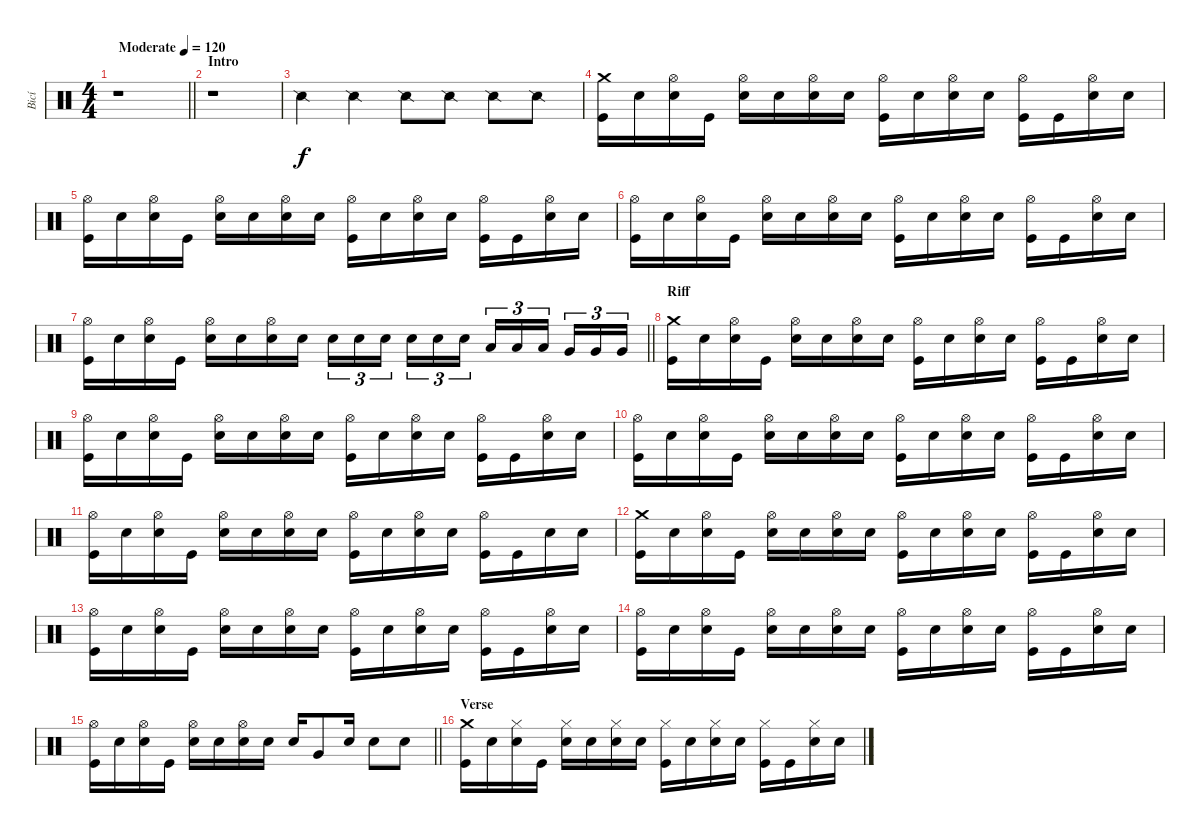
\track ("Bicí" "Bicí") {instrument percussion}
\staff {score}
\articulation defaults
\ts (4 4)
\tempo (120 "Moderate")
\clef neutral
\barLineRight lightlight
\ks c
r.1{dy f} |
\section ("" "Intro")
r.1 |
"Snare (side stick) 2".4 "Snare (side stick) 2".4 "Snare (side stick) 2".8 "Snare (side stick) 2".8 "Snare (side stick) 2".8 "Snare (side stick) 2".8 |
("Crash medium (hit)" "Kick (hit)").16 "Snare (hit)".16 ("Hi-Hat (open)" "Electric Snare (hit)").16 "Kick (hit)".16 ("Hi-Hat (open)" "Snare (hit)").16 "Snare (hit)".16 ("Hi-Hat (open)" "Electric Snare (hit)").16 "Snare (hit)".16 ("Hi-Hat (open)" "Kick (hit)").16 "Snare (hit)".16 ("Hi-Hat (open)" "Electric Snare (hit)").16 "Snare (hit)".16 ("Hi-Hat (open)" "Kick (hit)").16 "Kick (hit)".16 ("Hi-Hat (open)" "Electric Snare (hit)").16 "Snare (hit)".16 |
("Hi-Hat (open)" "Kick (hit)").16 "Snare (hit)".16 ("Hi-Hat (open)" "Electric Snare (hit)").16 "Kick (hit)".16 ("Hi-Hat (open)" "Snare (hit)").16 "Snare (hit)".16 ("Hi-Hat (open)" "Electric Snare (hit)").16 "Snare (hit)".16 ("Hi-Hat (open)" "Kick (hit)").16 "Snare (hit)".16 ("Hi-Hat (open)" "Electric Snare (hit)").16 "Snare (hit)".16 ("Hi-Hat (open)" "Kick (hit)").16 "Kick (hit)".16 ("Hi-Hat (open)" "Electric Snare (hit)").16 "Snare (hit)".16 |
("Hi-Hat (open)" "Kick (hit)").16 "Snare (hit)".16 ("Hi-Hat (open)" "Electric Snare (hit)").16 "Kick (hit)".16 ("Hi-Hat (open)" "Snare (hit)").16 "Snare (hit)".16 ("Hi-Hat (open)" "Electric Snare (hit)").16 "Snare (hit)".16 ("Hi-Hat (open)" "Kick (hit)").16 "Snare (hit)".16 ("Hi-Hat (open)" "Electric Snare (hit)").16 "Snare (hit)".16 ("Hi-Hat (open)" "Kick (hit)").16 "Kick (hit)".16 ("Hi-Hat (open)" "Electric Snare (hit)").16 "Snare (hit)".16 |
\barLineRight lightlight
("Hi-Hat (open)" "Kick (hit)").16 "Snare (hit)".16 ("Hi-Hat (open)" "Electric Snare (hit)").16 "Kick (hit)".16 ("Hi-Hat (open)" "Snare (hit)").16 "Snare (hit)".16 ("Hi-Hat (open)" "Electric Snare (hit)").16 "Snare (hit)".16 "Electric Snare (hit)".16{tu (3 2)} "Electric Snare (hit)".16{tu (3 2)} "Electric Snare (hit)".16{tu (3 2) beam splitsecondary} "Electric Snare (hit)".16{tu (3 2)} "Electric Snare (hit)".16{tu (3 2)} "Electric Snare (hit)".16{tu (3 2)} "Low Tom (hit)".16{tu (3 2)} "Low Tom (hit)".16{tu (3 2)} "Low Tom (hit)".16{tu (3 2) beam splitsecondary} "Very Low Tom (hit)".16{tu (3 2)} "Very Low Tom (hit)".16{tu (3 2)} "Very Low Tom (hit)".16{tu (3 2)} |
\section ("" "Riff")
("Crash medium (hit)" "Kick (hit)").16 "Snare (hit)".16 ("Hi-Hat (open)" "Electric Snare (hit)").16 "Kick (hit)".16 ("Hi-Hat (open)" "Snare (hit)").16 "Snare (hit)".16 ("Hi-Hat (open)" "Electric Snare (hit)").16 "Snare (hit)".16 ("Hi-Hat (open)" "Kick (hit)").16 "Snare (hit)".16 ("Hi-Hat (open)" "Electric Snare (hit)").16 "Snare (hit)".16 ("Hi-Hat (open)" "Kick (hit)").16 "Kick (hit)".16 ("Hi-Hat (open)" "Electric Snare (hit)").16 "Snare (hit)".16 |
("Hi-Hat (open)" "Kick (hit)").16 "Snare (hit)".16 ("Hi-Hat (open)" "Electric Snare (hit)").16 "Kick (hit)".16 ("Hi-Hat (open)" "Snare (hit)").16 "Snare (hit)".16 ("Hi-Hat (open)" "Electric Snare (hit)").16 "Snare (hit)".16 ("Hi-Hat (open)" "Kick (hit)").16 "Snare (hit)".16 ("Hi-Hat (open)" "Electric Snare (hit)").16 "Snare (hit)".16 ("Hi-Hat (open)" "Kick (hit)").16 "Kick (hit)".16 ("Hi-Hat (open)" "Electric Snare (hit)").16 "Snare (hit)".16 |
("Hi-Hat (open)" "Kick (hit)").16 "Snare (hit)".16 ("Hi-Hat (open)" "Electric Snare (hit)").16 "Kick (hit)".16 ("Hi-Hat (open)" "Snare (hit)").16 "Snare (hit)".16 ("Hi-Hat (open)" "Electric Snare (hit)").16 "Snare (hit)".16 ("Hi-Hat (open)" "Kick (hit)").16 "Snare (hit)".16 ("Hi-Hat (open)" "Electric Snare (hit)").16 "Snare (hit)".16 ("Hi-Hat (open)" "Kick (hit)").16 "Kick (hit)".16 ("Hi-Hat (open)" "Electric Snare (hit)").16 "Snare (hit)".16 |
("Hi-Hat (open)" "Kick (hit)").16 "Snare (hit)".16 ("Hi-Hat (open)" "Electric Snare (hit)").16 "Kick (hit)".16 ("Hi-Hat (open)" "Snare (hit)").16 "Snare (hit)".16 ("Hi-Hat (open)" "Electric Snare (hit)").16 "Snare (hit)".16 ("Hi-Hat (open)" "Kick (hit)").16 "Snare (hit)".16 ("Hi-Hat (open)" "Electric Snare (hit)").16 "Snare (hit)".16 ("Hi-Hat (open)" "Kick (hit)").16 "Kick (hit)".16 "Electric Snare (hit)".16 "Electric Snare (hit)".16 |
("Crash medium (hit)" "Kick (hit)").16 "Snare (hit)".16 ("Hi-Hat (open)" "Electric Snare (hit)").16 "Kick (hit)".16 ("Hi-Hat (open)" "Snare (hit)").16 "Snare (hit)".16 ("Hi-Hat (open)" "Electric Snare (hit)").16 "Snare (hit)".16 ("Hi-Hat (open)" "Kick (hit)").16 "Snare (hit)".16 ("Hi-Hat (open)" "Electric Snare (hit)").16 "Snare (hit)".16 ("Hi-Hat (open)" "Kick (hit)").16 "Kick (hit)".16 ("Hi-Hat (open)" "Electric Snare (hit)").16 "Snare (hit)".16 |
("Hi-Hat (open)" "Kick (hit)").16 "Snare (hit)".16 ("Hi-Hat (open)" "Electric Snare (hit)").16 "Kick (hit)".16 ("Hi-Hat (open)" "Snare (hit)").16 "Snare (hit)".16 ("Hi-Hat (open)" "Electric Snare (hit)").16 "Snare (hit)".16 ("Hi-Hat (open)" "Kick (hit)").16 "Snare (hit)".16 ("Hi-Hat (open)" "Electric Snare (hit)").16 "Snare (hit)".16 ("Hi-Hat (open)" "Kick (hit)").16 "Kick (hit)".16 ("Hi-Hat (open)" "Electric Snare (hit)").16 "Snare (hit)".16 |
("Hi-Hat (open)" "Kick (hit)").16 "Snare (hit)".16 ("Hi-Hat (open)" "Electric Snare (hit)").16 "Kick (hit)".16 ("Hi-Hat (open)" "Snare (hit)").16 "Snare (hit)".16 ("Hi-Hat (open)" "Electric Snare (hit)").16 "Snare (hit)".16 ("Hi-Hat (open)" "Kick (hit)").16 "Snare (hit)".16 ("Hi-Hat (open)" "Electric Snare (hit)").16 "Snare (hit)".16 ("Hi-Hat (open)" "Kick (hit)").16 "Kick (hit)".16 ("Hi-Hat (open)" "Electric Snare (hit)").16 "Snare (hit)".16 |
\barLineRight lightlight
("Hi-Hat (open)" "Kick (hit)").16 "Snare (hit)".16 ("Hi-Hat (open)" "Electric Snare (hit)").16 "Kick (hit)".16 ("Hi-Hat (open)" "Snare (hit)").16 "Snare (hit)".16 ("Hi-Hat (open)" "Electric Snare (hit)").16 "Snare (hit)".16 "Electric Snare (hit)".16 "Very Low Tom (hit)".8 "Electric Snare (hit)".16 "Electric Snare (hit)".8 "Electric Snare (hit)".8 |
\section ("" "Verse")
("Crash medium (hit)" "Kick (hit)").16 "Snare (hit)".16 ("Hi-Hat (closed)" "Electric Snare (hit)").16 "Kick (hit)".16 ("Hi-Hat (closed)" "Snare (hit)").16 "Snare (hit)".16 ("Hi-Hat (closed)" "Electric Snare (hit)").16 "Snare (hit)".16 ("Hi-Hat (closed)" "Kick (hit)").16 "Snare (hit)".16 ("Hi-Hat (closed)" "Electric Snare (hit)").16 "Snare (hit)".16 ("Hi-Hat (closed)" "Kick (hit)").16 "Kick (hit)".16 ("Hi-Hat (closed)" "Electric Snare (hit)").16 "Snare (hit)".16
